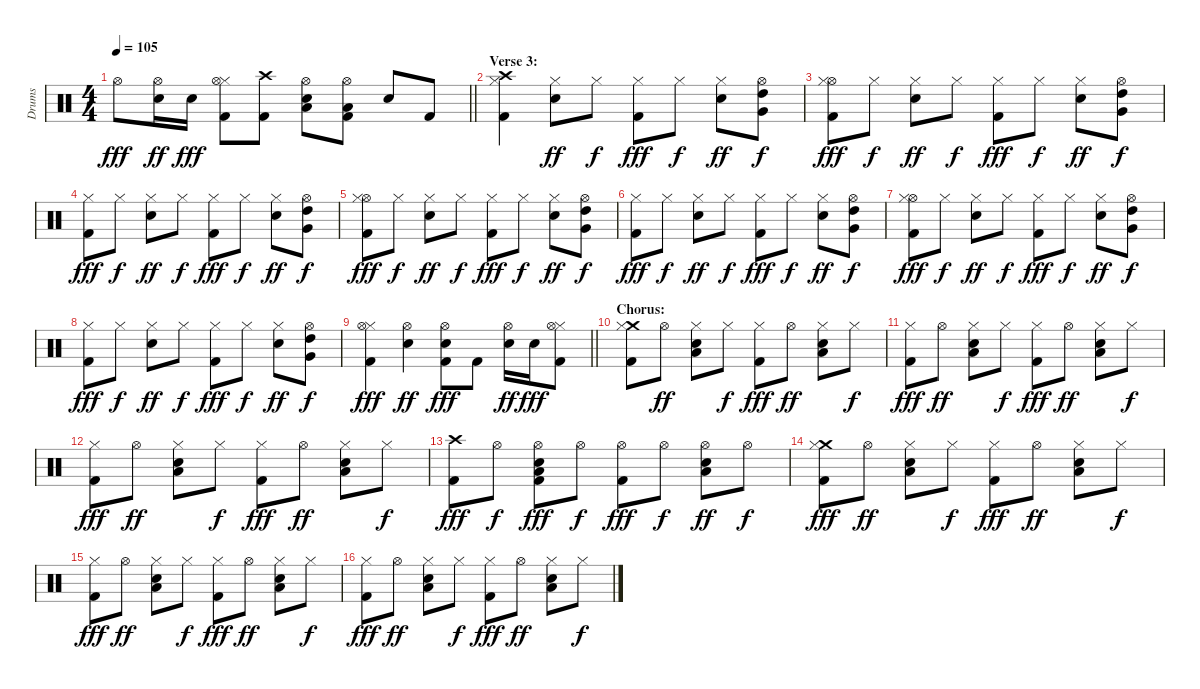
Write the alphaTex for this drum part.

\track ("Drums" "Drums") {instrument percussion}
\staff {score}
\articulation defaults
\ts (4 4)
\tempo 105
\clef neutral
\barLineRight lightlight
\ks c "Hi-Hat (open)".8{dy fff}
("Snare (hit) 2" "Hi-Hat (open)").16{dy ff} "Snare (hit) 2".16{dy fff} ("Hi-Hat (closed)" "Kick (hit) 2" "Hi-Hat (open)").8 ("Crash high (hit)" "Kick (hit) 2").8 ("Hi-Hat (open)" "Low Floor Tom (hit)" "Snare (hit) 2").8 ("Hi-Hat (open)" "Low Floor Tom (hit)" "Kick (hit) 2").8 "Snare (hit) 2".8 "Kick (hit) 2".8 |
\section ("" "Verse 3:")
("Crash high (hit)" "Hi-Hat (closed)" "Kick (hit) 2").4 ("Hi-Hat (closed)" "Electric Snare (hit)").8{dy ff} "Hi-Hat (closed)".8{dy f} ("Hi-Hat (closed)" "Kick (hit) 2").8{dy fff} "Hi-Hat (closed)".8{dy f} ("Hi-Hat (closed)" "Electric Snare (hit)").8{dy ff} ("Very Low Tom (hit)" "Hi-Hat (open)" "High Tom (hit)").8{dy f} |
("Hi-Hat (open)" "Hi-Hat (closed)" "Kick (hit) 2").8{dy fff} "Hi-Hat (closed)".8{dy f} ("Hi-Hat (closed)" "Electric Snare (hit)").8{dy ff} "Hi-Hat (closed)".8{dy f} ("Hi-Hat (closed)" "Kick (hit) 2").8{dy fff} "Hi-Hat (closed)".8{dy f} ("Hi-Hat (closed)" "Electric Snare (hit)").8{dy ff} ("Very Low Tom (hit)" "Hi-Hat (open)" "High Tom (hit)").8{dy f} |
("Hi-Hat (closed)" "Kick (hit) 2").8{dy fff} "Hi-Hat (closed)".8{dy f} ("Hi-Hat (closed)" "Electric Snare (hit)").8{dy ff} "Hi-Hat (closed)".8{dy f} ("Hi-Hat (closed)" "Kick (hit) 2").8{dy fff} "Hi-Hat (closed)".8{dy f} ("Hi-Hat (closed)" "Electric Snare (hit)").8{dy ff} ("Very Low Tom (hit)" "Hi-Hat (open)" "High Tom (hit)").8{dy f} |
("Hi-Hat (open)" "Hi-Hat (closed)" "Kick (hit) 2").8{dy fff} "Hi-Hat (closed)".8{dy f} ("Hi-Hat (closed)" "Electric Snare (hit)").8{dy ff} "Hi-Hat (closed)".8{dy f} ("Hi-Hat (closed)" "Kick (hit) 2").8{dy fff} "Hi-Hat (closed)".8{dy f} ("Hi-Hat (closed)" "Electric Snare (hit)").8{dy ff} ("Very Low Tom (hit)" "Hi-Hat (open)" "High Tom (hit)").8{dy f} |
("Hi-Hat (closed)" "Kick (hit) 2").8{dy fff} "Hi-Hat (closed)".8{dy f} ("Hi-Hat (closed)" "Electric Snare (hit)").8{dy ff} "Hi-Hat (closed)".8{dy f} ("Hi-Hat (closed)" "Kick (hit) 2").8{dy fff} "Hi-Hat (closed)".8{dy f} ("Hi-Hat (closed)" "Electric Snare (hit)").8{dy ff} ("Very Low Tom (hit)" "Hi-Hat (open)" "High Tom (hit)").8{dy f} |
("Hi-Hat (open)" "Hi-Hat (closed)" "Kick (hit) 2").8{dy fff} "Hi-Hat (closed)".8{dy f} ("Hi-Hat (closed)" "Electric Snare (hit)").8{dy ff} "Hi-Hat (closed)".8{dy f} ("Hi-Hat (closed)" "Kick (hit) 2").8{dy fff} "Hi-Hat (closed)".8{dy f} ("Hi-Hat (closed)" "Electric Snare (hit)").8{dy ff} ("Very Low Tom (hit)" "Hi-Hat (open)" "High Tom (hit)").8{dy f} |
("Hi-Hat (closed)" "Kick (hit) 2").8{dy fff} "Hi-Hat (closed)".8{dy f} ("Hi-Hat (closed)" "Electric Snare (hit)").8{dy ff} "Hi-Hat (closed)".8{dy f} ("Hi-Hat (closed)" "Kick (hit) 2").8{dy fff} "Hi-Hat (closed)".8{dy f} ("Hi-Hat (closed)" "Electric Snare (hit)").8{dy ff} ("Very Low Tom (hit)" "Hi-Hat (open)" "High Tom (hit)").8{dy f} |
\barLineRight lightlight
("Hi-Hat (closed)" "Hi-Hat (open)" "Kick (hit) 2").4{dy fff} ("Hi-Hat (open)" "Snare (hit) 2").4{dy ff} ("Hi-Hat (open)" "Snare (hit) 2" "Kick (hit) 2").8{dy fff} "Kick (hit) 2".8 ("Snare (hit) 2" "Hi-Hat (open)").16{dy ff} "Snare (hit) 2".16{dy fff} ("Hi-Hat (closed)" "Hi-Hat (open)" "Kick (hit) 2").8 |
\section ("" "Chorus:")
("Crash medium (hit)" "Hi-Hat (closed)" "Kick (hit) 2").8 "Hi-Hat (open)".8{dy ff} ("Hi-Hat (closed)" "Low Floor Tom (hit)" "Snare (hit) 2").8 "Hi-Hat (closed)".8{dy f} ("Hi-Hat (closed)" "Kick (hit) 2").8{dy fff} "Hi-Hat (open)".8{dy ff} ("Hi-Hat (closed)" "Low Floor Tom (hit)" "Snare (hit) 2").8 "Hi-Hat (closed)".8{dy f} |
("Hi-Hat (closed)" "Kick (hit) 2").8{dy fff} "Hi-Hat (open)".8{dy ff} ("Hi-Hat (closed)" "Low Floor Tom (hit)" "Snare (hit) 2").8 "Hi-Hat (closed)".8{dy f} ("Hi-Hat (closed)" "Kick (hit) 2").8{dy fff} "Hi-Hat (open)".8{dy ff} ("Hi-Hat (closed)" "Low Floor Tom (hit)" "Snare (hit) 2").8 "Hi-Hat (closed)".8{dy f} |
("Hi-Hat (closed)" "Kick (hit) 2").8{dy fff} "Hi-Hat (open)".8{dy ff} ("Hi-Hat (closed)" "Low Floor Tom (hit)" "Snare (hit) 2").8 "Hi-Hat (closed)".8{dy f} ("Hi-Hat (closed)" "Kick (hit) 2").8{dy fff} "Hi-Hat (open)".8{dy ff} ("Hi-Hat (closed)" "Low Floor Tom (hit)" "Snare (hit) 2").8 "Hi-Hat (closed)".8{dy f} |
("Crash high (hit)" "Kick (hit) 2").8{dy fff} "Hi-Hat (open)".8{dy f} ("Hi-Hat (open)" "Low Floor Tom (hit)" "Snare (hit) 2" "Kick (hit) 2").8{dy fff} "Hi-Hat (open)".8{dy f} ("Hi-Hat (open)" "Kick (hit) 2").8{dy fff} "Hi-Hat (open)".8{dy f} ("Hi-Hat (open)" "Low Floor Tom (hit)" "Snare (hit) 2").8{dy ff} "Hi-Hat (open)".8{dy f} |
("Crash medium (hit)" "Hi-Hat (closed)" "Kick (hit) 2").8{dy fff} "Hi-Hat (open)".8{dy ff} ("Hi-Hat (closed)" "Low Floor Tom (hit)" "Snare (hit) 2").8 "Hi-Hat (closed)".8{dy f} ("Hi-Hat (closed)" "Kick (hit) 2").8{dy fff} "Hi-Hat (open)".8{dy ff} ("Hi-Hat (closed)" "Low Floor Tom (hit)" "Snare (hit) 2").8 "Hi-Hat (closed)".8{dy f} |
("Hi-Hat (closed)" "Kick (hit) 2").8{dy fff} "Hi-Hat (open)".8{dy ff} ("Hi-Hat (closed)" "Low Floor Tom (hit)" "Snare (hit) 2").8 "Hi-Hat (closed)".8{dy f} ("Hi-Hat (closed)" "Kick (hit) 2").8{dy fff} "Hi-Hat (open)".8{dy ff} ("Hi-Hat (closed)" "Low Floor Tom (hit)" "Snare (hit) 2").8 "Hi-Hat (closed)".8{dy f} |
("Hi-Hat (closed)" "Kick (hit) 2").8{dy fff} "Hi-Hat (open)".8{dy ff} ("Hi-Hat (closed)" "Low Floor Tom (hit)" "Snare (hit) 2").8 "Hi-Hat (closed)".8{dy f} ("Hi-Hat (closed)" "Kick (hit) 2").8{dy fff} "Hi-Hat (open)".8{dy ff} ("Hi-Hat (closed)" "Low Floor Tom (hit)" "Snare (hit) 2").8 "Hi-Hat (closed)".8{dy f}
